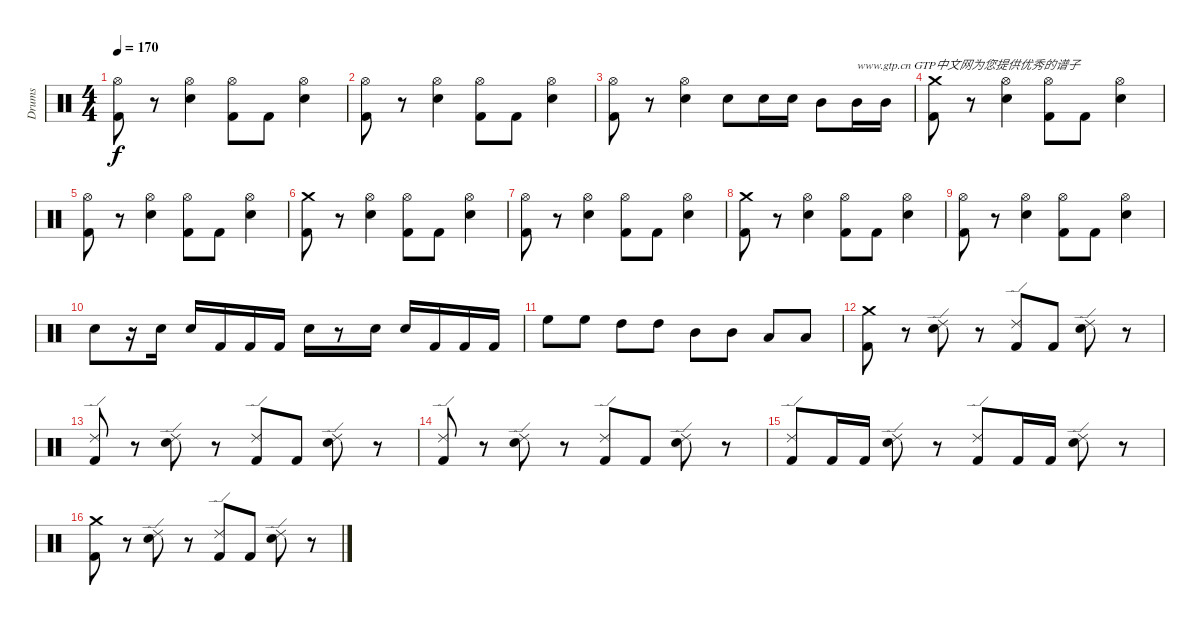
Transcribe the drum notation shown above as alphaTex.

\track ("Drums" "Drums") {instrument percussion}
\staff {score}
\articulation defaults
\ts (4 4)
\tempo 170
\clef neutral
\ks c
("Hi-Hat (open)" "Kick (hit) 2").8{dy f} r.8 ("Hi-Hat (open)" "Electric Snare (hit)").4 ("Hi-Hat (open)" "Kick (hit) 2").8 "Kick (hit) 2".8 ("Hi-Hat (open)" "Electric Snare (hit)").4 |
("Hi-Hat (open)" "Kick (hit) 2").8 r.8 ("Hi-Hat (open)" "Electric Snare (hit)").4 ("Hi-Hat (open)" "Kick (hit) 2").8 "Kick (hit) 2".8 ("Hi-Hat (open)" "Electric Snare (hit)").4 |
("Hi-Hat (open)" "Kick (hit) 2").8 r.8 ("Hi-Hat (open)" "Electric Snare (hit)").4 "Electric Snare (hit)".8 "Electric Snare (hit)".16 "Electric Snare (hit)".16 "Mid Tom (hit)".8 "Mid Tom (hit)".16{txt "www.gtp.cn GTP中文网为您提供优秀的谱子"} "Mid Tom (hit)".16 |
("Kick (hit) 2" "Crash medium (hit)").8 r.8 ("Hi-Hat (open)" "Electric Snare (hit)").4 ("Hi-Hat (open)" "Kick (hit) 2").8 "Kick (hit) 2".8 ("Hi-Hat (open)" "Electric Snare (hit)").4 |
("Hi-Hat (open)" "Kick (hit) 2").8 r.8 ("Hi-Hat (open)" "Electric Snare (hit)").4 ("Hi-Hat (open)" "Kick (hit) 2").8 "Kick (hit) 2".8 ("Hi-Hat (open)" "Electric Snare (hit)").4 |
("Crash medium (hit)" "Kick (hit) 2").8 r.8 ("Hi-Hat (open)" "Electric Snare (hit)").4 ("Hi-Hat (open)" "Kick (hit) 2").8 "Kick (hit) 2".8 ("Hi-Hat (open)" "Electric Snare (hit)").4 |
("Hi-Hat (open)" "Kick (hit) 2").8 r.8 ("Hi-Hat (open)" "Electric Snare (hit)").4 ("Hi-Hat (open)" "Kick (hit) 2").8 "Kick (hit) 2".8 ("Hi-Hat (open)" "Electric Snare (hit)").4 |
("Kick (hit) 2" "Crash medium (hit)").8 r.8 ("Hi-Hat (open)" "Electric Snare (hit)").4 ("Hi-Hat (open)" "Kick (hit) 2").8 "Kick (hit) 2".8 ("Hi-Hat (open)" "Electric Snare (hit)").4 |
("Hi-Hat (open)" "Kick (hit) 2").8 r.8 ("Hi-Hat (open)" "Electric Snare (hit)").4 ("Hi-Hat (open)" "Kick (hit) 2").8 "Kick (hit) 2".8 ("Hi-Hat (open)" "Electric Snare (hit)").4 |
"Electric Snare (hit)".8 r.16 "Electric Snare (hit)".16 "Electric Snare (hit)".16 "Kick (hit) 2".16 "Kick (hit) 2".16 "Kick (hit) 2".16 "Electric Snare (hit)".16 r.8 "Electric Snare (hit)".16 "Electric Snare (hit)".16 "Kick (hit) 2".16 "Kick (hit) 2".16 "Kick (hit) 2".16 |
"High Floor Tom (hit)".8 "High Floor Tom (hit)".8 "High Tom (hit)".8 "High Tom (hit)".8 "Mid Tom (hit)".8 "Mid Tom (hit)".8 "Low Tom (hit)".8 "Low Tom (hit)".8 |
("Crash medium (hit)" "Kick (hit) 2").8 r.8 ("Ride (edge) 2" "Electric Snare (hit)").8 r.8 ("Ride (edge) 2" "Kick (hit) 2").8 "Kick (hit) 2".8 ("Ride (edge) 2" "Electric Snare (hit)").8 r.8 |
("Ride (edge) 2" "Kick (hit) 2").8 r.8 ("Ride (edge) 2" "Electric Snare (hit)").8 r.8 ("Ride (edge) 2" "Kick (hit) 2").8 "Kick (hit) 2".8 ("Ride (edge) 2" "Electric Snare (hit)").8 r.8 |
("Ride (edge) 2" "Kick (hit) 2").8 r.8 ("Ride (edge) 2" "Electric Snare (hit)").8 r.8 ("Ride (edge) 2" "Kick (hit) 2").8 "Kick (hit) 2".8 ("Ride (edge) 2" "Electric Snare (hit)").8 r.8 |
("Ride (edge) 2" "Kick (hit) 2").8 "Kick (hit) 2".16 "Kick (hit) 2".16 ("Ride (edge) 2" "Electric Snare (hit)").8 r.8 ("Ride (edge) 2" "Kick (hit) 2").8 "Kick (hit) 2".16 "Kick (hit) 2".16 ("Ride (edge) 2" "Electric Snare (hit)").8 r.8 |
("Crash medium (hit)" "Kick (hit) 2").8 r.8 ("Ride (edge) 2" "Electric Snare (hit)").8 r.8 ("Ride (edge) 2" "Kick (hit) 2").8 "Kick (hit) 2".8 ("Ride (edge) 2" "Electric Snare (hit)").8 r.8
